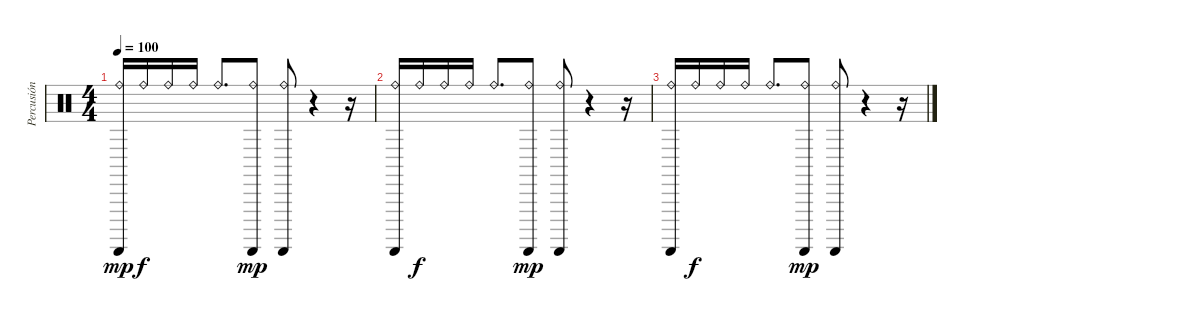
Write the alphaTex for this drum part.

\track ("Percusión" "Percusión") {instrument percussion}
\staff {score}
\articulation defaults
\ts (4 4)
\tempo 100
\clef neutral
\ks c
("Ride (bell)" "Guiro (scrap-return)").16{dy mp} "Ride (bell)".16{dy f} "Ride (bell)".16 "Ride (bell)".16 "Ride (bell)".8{d} ("Ride (bell)" "Guiro (scrap-return)").8{dy mp} ("Ride (bell)" "Guiro (scrap-return)").8 r.4 r.16 |
("Ride (bell)" "Guiro (scrap-return)").16 "Ride (bell)".16{dy f} "Ride (bell)".16 "Ride (bell)".16 "Ride (bell)".8{d} ("Ride (bell)" "Guiro (scrap-return)").8{dy mp} ("Ride (bell)" "Guiro (scrap-return)").8 r.4 r.16 |
("Ride (bell)" "Guiro (scrap-return)").16 "Ride (bell)".16{dy f} "Ride (bell)".16 "Ride (bell)".16 "Ride (bell)".8{d} ("Ride (bell)" "Guiro (scrap-return)").8{dy mp} ("Ride (bell)" "Guiro (scrap-return)").8 r.4 r.16
